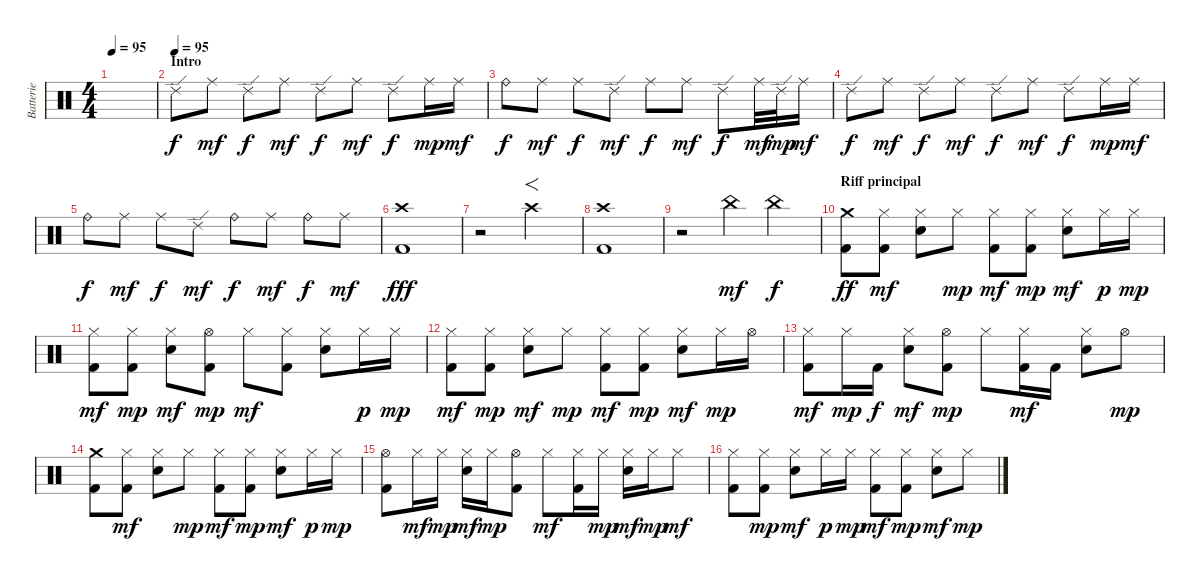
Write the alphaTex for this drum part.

\track ("Batterie" "Batterie") {instrument percussion}
\staff {score}
\articulation defaults
\ts (4 4)
\tempo 95
\clef neutral
\ks c
|
\section ("" "Intro")
\tempo (95)
"Ride (edge) 2".8 "Ride (middle)".8{dy mf} "Ride (edge) 2".8{dy f} "Ride (middle)".8{dy mf} "Ride (edge) 2".8{dy f} "Ride (middle)".8{dy mf} "Ride (edge) 2".8{dy f} "Ride (middle)".16{dy mp} "Ride (middle)".16{dy mf} |
"Ride (bell)".8{dy f} "Ride (middle)".8{dy mf} "Ride (middle)".8{dy f} "Ride (edge) 2".8{dy mf} "Ride (middle)".8{dy f} "Ride (middle)".8{dy mf} "Ride (edge) 2".8{dy f} "Ride (middle)".32{dy mf} "Ride (edge) 2".32{dy mp} "Ride (middle)".16{dy mf} |
"Ride (edge) 2".8{dy f} "Ride (middle)".8{dy mf} "Ride (edge) 2".8{dy f} "Ride (middle)".8{dy mf} "Ride (edge) 2".8{dy f} "Ride (middle)".8{dy mf} "Ride (edge) 2".8{dy f} "Ride (middle)".16{dy mp} "Ride (middle)".16{dy mf} |
"Ride (bell)".8{dy f} "Ride (middle)".8{dy mf} "Ride (middle)".8{dy f} "Ride (edge) 2".8{dy mf} "Ride (bell)".8{dy f} "Ride (middle)".8{dy mf} "Ride (bell)".8{dy f} "Ride (middle)".8{dy mf} |
("Crash high (hit)" "Kick (hit) 2").1{dy fff} |
r.2 "Crash high (hit)".2{f} |
("Crash high (hit)" "Kick (hit) 2").1 |
r.2 "China (hit)".4{dy mf} "China (hit)".4{dy f} |
\section ("" "Riff principal")
("Crash medium (hit)" "Kick (hit) 2").8{dy ff} ("Hi-Hat (closed)" "Kick (hit) 2").8{dy mf} ("Hi-Hat (closed)" "Electric Snare (hit)").8 "Hi-Hat (closed)".8{dy mp} ("Hi-Hat (closed)" "Kick (hit) 2").8{dy mf} ("Hi-Hat (closed)" "Kick (hit) 2").8{dy mp} ("Hi-Hat (closed)" "Electric Snare (hit)").8{dy mf} "Hi-Hat (closed)".16{dy p} "Hi-Hat (closed)".16{dy mp} |
("Hi-Hat (closed)" "Kick (hit) 2").8{dy mf} ("Hi-Hat (closed)" "Kick (hit) 2").8{dy mp} ("Hi-Hat (closed)" "Electric Snare (hit)").8{dy mf} ("Hi-Hat (open)" "Kick (hit) 2").8{dy mp} "Hi-Hat (closed)".8{dy mf} ("Hi-Hat (closed)" "Kick (hit) 2").8 ("Hi-Hat (closed)" "Electric Snare (hit)").8 "Hi-Hat (closed)".16{dy p} "Hi-Hat (closed)".16{dy mp} |
("Hi-Hat (closed)" "Kick (hit) 2").8{dy mf} ("Hi-Hat (closed)" "Kick (hit) 2").8{dy mp} ("Hi-Hat (closed)" "Electric Snare (hit)").8{dy mf} "Hi-Hat (closed)".8{dy mp} ("Hi-Hat (closed)" "Kick (hit) 2").8{dy mf} ("Hi-Hat (closed)" "Kick (hit) 2").8{dy mp} ("Hi-Hat (closed)" "Electric Snare (hit)").8{dy mf} "Hi-Hat (closed)".16{dy mp} "Hi-Hat (open)".16 |
("Hi-Hat (closed)" "Kick (hit) 2").8{dy mf} "Hi-Hat (closed)".16{dy mp} "Kick (hit) 2".16{dy f} ("Hi-Hat (closed)" "Electric Snare (hit)").8{dy mf} ("Hi-Hat (open)" "Kick (hit) 2").8{dy mp} "Hi-Hat (closed)".8 ("Hi-Hat (closed)" "Kick (hit) 2").16{dy mf} "Kick (hit) 2".16 ("Hi-Hat (closed)" "Electric Snare (hit)").8 "Hi-Hat (open)".8{dy mp} |
("Crash medium (hit)" "Kick (hit) 2").8 ("Hi-Hat (closed)" "Kick (hit) 2").8{dy mf} ("Hi-Hat (closed)" "Electric Snare (hit)").8 "Hi-Hat (closed)".8{dy mp} ("Hi-Hat (closed)" "Kick (hit) 2").8{dy mf} ("Hi-Hat (closed)" "Kick (hit) 2").8{dy mp} ("Hi-Hat (closed)" "Electric Snare (hit)").8{dy mf} "Hi-Hat (closed)".16{dy p} "Hi-Hat (closed)".16{dy mp} |
("Hi-Hat (open)" "Kick (hit) 2").8 "Hi-Hat (closed)".16{dy mf} "Hi-Hat (closed)".16{dy mp} ("Hi-Hat (closed)" "Electric Snare (hit)").16{dy mf} "Hi-Hat (closed)".16{dy mp} ("Hi-Hat (open)" "Kick (hit) 2").8 "Hi-Hat (closed)".8{dy mf} ("Hi-Hat (closed)" "Kick (hit) 2").16 "Hi-Hat (closed)".16{dy mp} ("Hi-Hat (closed)" "Electric Snare (hit)").16{dy mf} "Hi-Hat (closed)".16{dy mp} "Hi-Hat (closed)".8{dy mf} |
("Hi-Hat (closed)" "Kick (hit) 2").8 ("Hi-Hat (closed)" "Kick (hit) 2").8{dy mp} ("Hi-Hat (closed)" "Electric Snare (hit)").8{dy mf} "Hi-Hat (closed)".16{dy p} "Hi-Hat (closed)".16{dy mp} ("Hi-Hat (closed)" "Kick (hit) 2").8{dy mf} ("Hi-Hat (closed)" "Kick (hit) 2").8{dy mp} ("Hi-Hat (closed)" "Electric Snare (hit)").8{dy mf} "Hi-Hat (closed)".8{dy mp}
